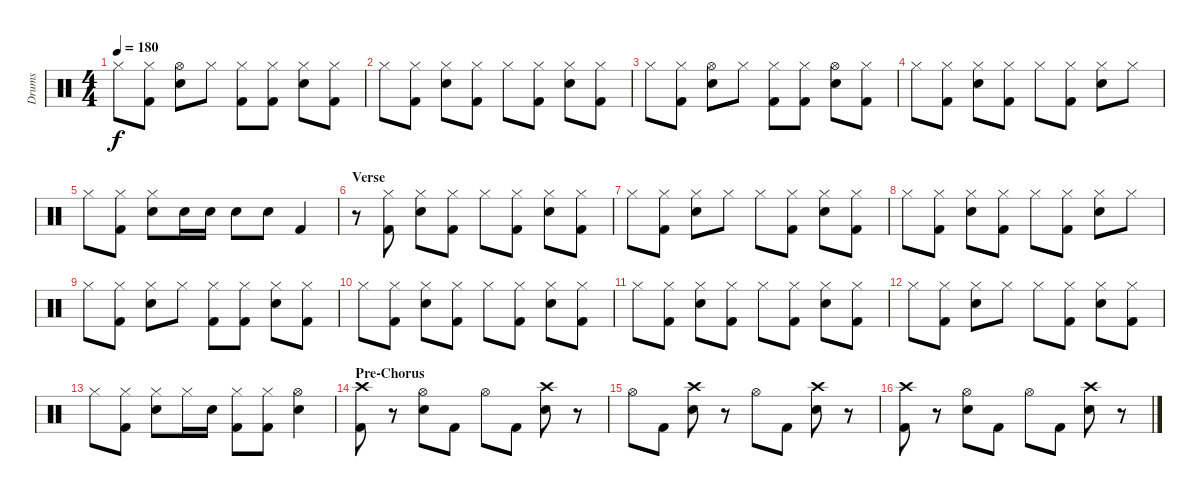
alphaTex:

\track ("Drums" "Drums") {instrument percussion}
\staff {score}
\articulation defaults
\ts (4 4)
\tempo 180
\clef neutral
\ks c "Hi-Hat (closed)".8{dy f}
("Hi-Hat (closed)" "Kick (hit) 2").8 ("Hi-Hat (open)" "Electric Snare (hit)").8 "Hi-Hat (closed)".8 ("Hi-Hat (closed)" "Kick (hit) 2").8 ("Hi-Hat (closed)" "Kick (hit) 2").8 ("Hi-Hat (closed)" "Electric Snare (hit)").8 ("Hi-Hat (closed)" "Kick (hit) 2").8 |
"Hi-Hat (closed)".8 ("Hi-Hat (closed)" "Kick (hit) 2").8 ("Hi-Hat (closed)" "Electric Snare (hit)").8 ("Hi-Hat (closed)" "Kick (hit) 2").8 "Hi-Hat (closed)".8 ("Hi-Hat (closed)" "Kick (hit) 2").8 ("Hi-Hat (closed)" "Electric Snare (hit)").8 ("Hi-Hat (closed)" "Kick (hit) 2").8 |
"Hi-Hat (closed)".8 ("Hi-Hat (closed)" "Kick (hit) 2").8 ("Hi-Hat (open)" "Electric Snare (hit)").8 "Hi-Hat (closed)".8 ("Hi-Hat (closed)" "Kick (hit) 2").8 ("Hi-Hat (closed)" "Kick (hit) 2").8 ("Hi-Hat (open)" "Electric Snare (hit)").8 ("Hi-Hat (closed)" "Kick (hit) 2").8 |
"Hi-Hat (closed)".8 ("Hi-Hat (closed)" "Kick (hit) 2").8 ("Hi-Hat (closed)" "Electric Snare (hit)").8 ("Hi-Hat (closed)" "Kick (hit) 2").8 "Hi-Hat (closed)".8 ("Hi-Hat (closed)" "Kick (hit) 2").8 ("Hi-Hat (closed)" "Electric Snare (hit)").8 "Hi-Hat (closed)".8 |
"Hi-Hat (closed)".8 ("Hi-Hat (closed)" "Kick (hit) 2").8 ("Hi-Hat (closed)" "Electric Snare (hit)").8 "Electric Snare (hit)".16 "Electric Snare (hit)".16 "Electric Snare (hit)".8 "Electric Snare (hit)".8 "Kick (hit) 2".4 |
\section ("" "Verse")
r.8 ("Hi-Hat (closed)" "Kick (hit) 2").8 ("Hi-Hat (closed)" "Electric Snare (hit)").8 ("Hi-Hat (closed)" "Kick (hit) 2").8 "Hi-Hat (closed)".8 ("Hi-Hat (closed)" "Kick (hit) 2").8 ("Hi-Hat (closed)" "Electric Snare (hit)").8 ("Hi-Hat (closed)" "Kick (hit) 2").8 |
"Hi-Hat (closed)".8 ("Hi-Hat (closed)" "Kick (hit) 2").8 ("Hi-Hat (closed)" "Electric Snare (hit)").8 "Hi-Hat (closed)".8 "Hi-Hat (closed)".8 ("Hi-Hat (closed)" "Kick (hit) 2").8 ("Hi-Hat (closed)" "Electric Snare (hit)").8 ("Hi-Hat (closed)" "Kick (hit) 2").8 |
"Hi-Hat (closed)".8 ("Hi-Hat (closed)" "Kick (hit) 2").8 ("Hi-Hat (closed)" "Electric Snare (hit)").8 ("Hi-Hat (closed)" "Kick (hit) 2").8 "Hi-Hat (closed)".8 ("Hi-Hat (closed)" "Kick (hit) 2").8 ("Hi-Hat (closed)" "Electric Snare (hit)").8 "Hi-Hat (closed)".8 |
"Hi-Hat (closed)".8 ("Hi-Hat (closed)" "Kick (hit) 2").8 ("Hi-Hat (closed)" "Electric Snare (hit)").8 "Hi-Hat (closed)".8 ("Hi-Hat (closed)" "Kick (hit) 2").8 ("Hi-Hat (closed)" "Kick (hit) 2").8 ("Hi-Hat (closed)" "Electric Snare (hit)").8 ("Hi-Hat (closed)" "Kick (hit) 2").8 |
"Hi-Hat (closed)".8 ("Hi-Hat (closed)" "Kick (hit) 2").8 ("Hi-Hat (closed)" "Electric Snare (hit)").8 ("Hi-Hat (closed)" "Kick (hit) 2").8 "Hi-Hat (closed)".8 ("Hi-Hat (closed)" "Kick (hit) 2").8 ("Hi-Hat (closed)" "Electric Snare (hit)").8 ("Hi-Hat (closed)" "Kick (hit) 2").8 |
"Hi-Hat (closed)".8 ("Hi-Hat (closed)" "Kick (hit) 2").8 ("Hi-Hat (closed)" "Electric Snare (hit)").8 ("Hi-Hat (closed)" "Kick (hit) 2").8 "Hi-Hat (closed)".8 ("Hi-Hat (closed)" "Kick (hit) 2").8 ("Hi-Hat (closed)" "Electric Snare (hit)").8 ("Hi-Hat (closed)" "Kick (hit) 2").8 |
"Hi-Hat (closed)".8 ("Hi-Hat (closed)" "Kick (hit) 2").8 ("Hi-Hat (closed)" "Electric Snare (hit)").8 "Hi-Hat (closed)".8 "Hi-Hat (closed)".8 ("Hi-Hat (closed)" "Kick (hit) 2").8 ("Hi-Hat (closed)" "Electric Snare (hit)").8 ("Hi-Hat (closed)" "Kick (hit) 2").8 |
"Hi-Hat (closed)".8 ("Hi-Hat (closed)" "Kick (hit) 2").8 ("Hi-Hat (closed)" "Electric Snare (hit)").8 "Hi-Hat (closed)".16 "Electric Snare (hit)".16 ("Hi-Hat (closed)" "Kick (hit) 2").8 ("Hi-Hat (closed)" "Kick (hit) 2").8 ("Hi-Hat (open)" "Electric Snare (hit)").4 |
\section ("" "Pre-Chorus")
("Crash high (hit)" "Kick (hit) 2").8 r.8 ("Hi-Hat (open)" "Electric Snare (hit)").8 "Kick (hit) 2".8 "Hi-Hat (open)".8 "Kick (hit) 2".8 ("Crash high (hit)" "Electric Snare (hit)").8 r.8 |
"Hi-Hat (open)".8 "Kick (hit) 2".8 ("Crash high (hit)" "Electric Snare (hit)").8 r.8 "Hi-Hat (open)".8 "Kick (hit) 2".8 ("Crash high (hit)" "Electric Snare (hit)").8 r.8 |
("Crash high (hit)" "Kick (hit) 2").8 r.8 ("Hi-Hat (open)" "Electric Snare (hit)").8 "Kick (hit) 2".8 "Hi-Hat (open)".8 "Kick (hit) 2".8 ("Crash high (hit)" "Electric Snare (hit)").8 r.8
